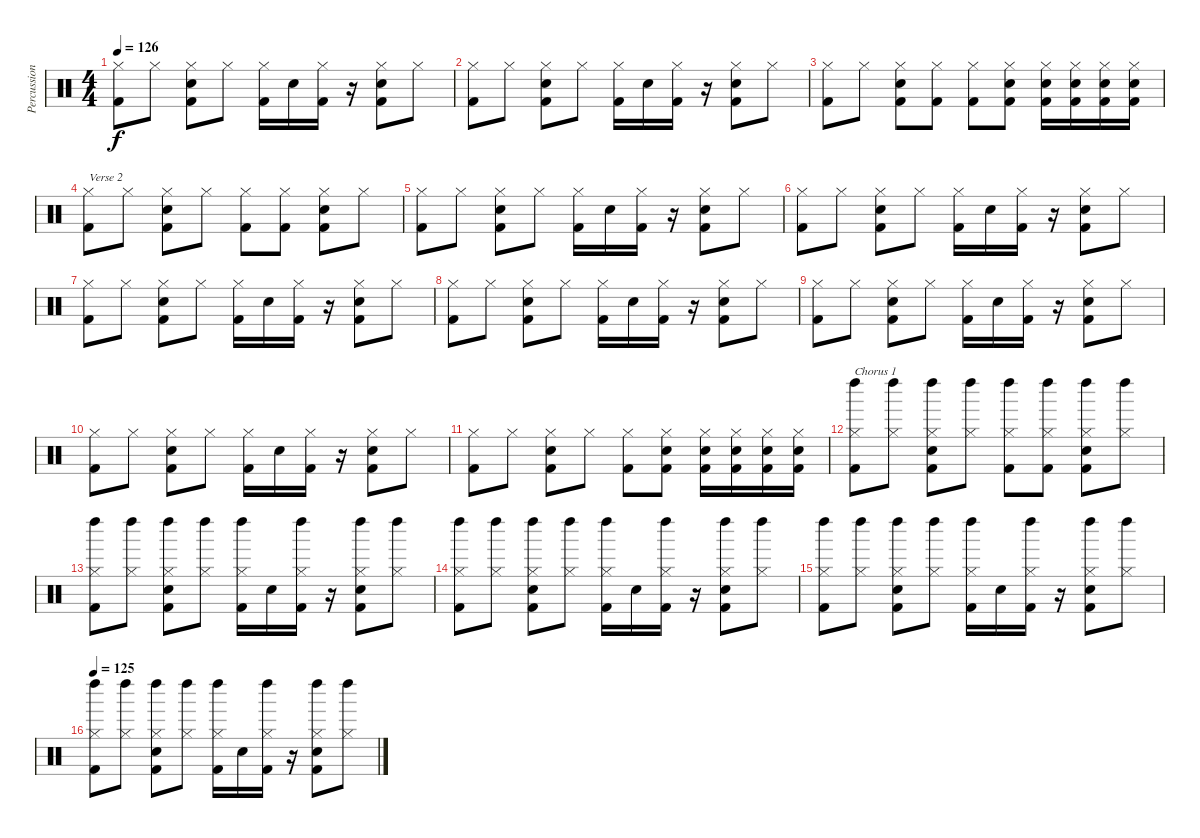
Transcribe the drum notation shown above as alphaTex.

\track ("Percussion" "Percussion") {instrument percussion}
\staff {score}
\articulation defaults
\ts (4 4)
\tempo 126
\clef neutral
\ks c
("Hi-Hat (closed)" "Kick (hit) 2").8{dy f} "Hi-Hat (closed)".8 ("Hi-Hat (closed)" "Electric Snare (hit)" "Kick (hit) 2").8 "Hi-Hat (closed)".8 ("Hi-Hat (closed)" "Kick (hit) 2").16 "Electric Snare (hit)".16 ("Hi-Hat (closed)" "Kick (hit) 2").16 r.16 ("Hi-Hat (closed)" "Electric Snare (hit)" "Kick (hit) 2").8 "Hi-Hat (closed)".8 |
("Hi-Hat (closed)" "Kick (hit) 2").8 "Hi-Hat (closed)".8 ("Hi-Hat (closed)" "Electric Snare (hit)" "Kick (hit) 2").8 "Hi-Hat (closed)".8 ("Hi-Hat (closed)" "Kick (hit) 2").16 "Electric Snare (hit)".16 ("Hi-Hat (closed)" "Kick (hit) 2").16 r.16 ("Hi-Hat (closed)" "Electric Snare (hit)" "Kick (hit) 2").8 "Hi-Hat (closed)".8 |
("Hi-Hat (closed)" "Kick (hit) 2").8 "Hi-Hat (closed)".8 ("Hi-Hat (closed)" "Electric Snare (hit)" "Kick (hit) 2").8 ("Hi-Hat (closed)" "Kick (hit) 2").8 ("Hi-Hat (closed)" "Kick (hit) 2").8 ("Hi-Hat (closed)" "Electric Snare (hit)" "Kick (hit) 2").8 ("Hi-Hat (closed)" "Electric Snare (hit)" "Kick (hit) 2").16 ("Hi-Hat (closed)" "Electric Snare (hit)" "Kick (hit) 2").16 ("Hi-Hat (closed)" "Electric Snare (hit)" "Kick (hit) 2").16 ("Hi-Hat (closed)" "Electric Snare (hit)" "Kick (hit) 2").16 |
("Hi-Hat (closed)" "Kick (hit) 2").8{txt "Verse 2"} "Hi-Hat (closed)".8 ("Hi-Hat (closed)" "Electric Snare (hit)" "Kick (hit) 2").8 "Hi-Hat (closed)".8 ("Hi-Hat (closed)" "Kick (hit) 2").8 ("Hi-Hat (closed)" "Kick (hit) 2").8 ("Hi-Hat (closed)" "Electric Snare (hit)" "Kick (hit) 2").8 "Hi-Hat (closed)".8 |
("Hi-Hat (closed)" "Kick (hit) 2").8 "Hi-Hat (closed)".8 ("Hi-Hat (closed)" "Electric Snare (hit)" "Kick (hit) 2").8 "Hi-Hat (closed)".8 ("Hi-Hat (closed)" "Kick (hit) 2").16 "Electric Snare (hit)".16 ("Hi-Hat (closed)" "Kick (hit) 2").16 r.16 ("Hi-Hat (closed)" "Electric Snare (hit)" "Kick (hit) 2").8 "Hi-Hat (closed)".8 |
("Hi-Hat (closed)" "Kick (hit) 2").8 "Hi-Hat (closed)".8 ("Hi-Hat (closed)" "Electric Snare (hit)" "Kick (hit) 2").8 "Hi-Hat (closed)".8 ("Hi-Hat (closed)" "Kick (hit) 2").16 "Electric Snare (hit)".16 ("Hi-Hat (closed)" "Kick (hit) 2").16 r.16 ("Hi-Hat (closed)" "Electric Snare (hit)" "Kick (hit) 2").8 "Hi-Hat (closed)".8 |
("Hi-Hat (closed)" "Kick (hit) 2").8 "Hi-Hat (closed)".8 ("Hi-Hat (closed)" "Electric Snare (hit)" "Kick (hit) 2").8 "Hi-Hat (closed)".8 ("Hi-Hat (closed)" "Kick (hit) 2").16 "Electric Snare (hit)".16 ("Hi-Hat (closed)" "Kick (hit) 2").16 r.16 ("Hi-Hat (closed)" "Electric Snare (hit)" "Kick (hit) 2").8 "Hi-Hat (closed)".8 |
("Hi-Hat (closed)" "Kick (hit) 2").8 "Hi-Hat (closed)".8 ("Hi-Hat (closed)" "Electric Snare (hit)" "Kick (hit) 2").8 "Hi-Hat (closed)".8 ("Hi-Hat (closed)" "Kick (hit) 2").16 "Electric Snare (hit)".16 ("Hi-Hat (closed)" "Kick (hit) 2").16 r.16 ("Hi-Hat (closed)" "Electric Snare (hit)" "Kick (hit) 2").8 "Hi-Hat (closed)".8 |
("Hi-Hat (closed)" "Kick (hit) 2").8 "Hi-Hat (closed)".8 ("Hi-Hat (closed)" "Electric Snare (hit)" "Kick (hit) 2").8 "Hi-Hat (closed)".8 ("Hi-Hat (closed)" "Kick (hit) 2").16 "Electric Snare (hit)".16 ("Hi-Hat (closed)" "Kick (hit) 2").16 r.16 ("Hi-Hat (closed)" "Electric Snare (hit)" "Kick (hit) 2").8 "Hi-Hat (closed)".8 |
("Hi-Hat (closed)" "Kick (hit) 2").8 "Hi-Hat (closed)".8 ("Hi-Hat (closed)" "Electric Snare (hit)" "Kick (hit) 2").8 "Hi-Hat (closed)".8 ("Hi-Hat (closed)" "Kick (hit) 2").16 "Electric Snare (hit)".16 ("Hi-Hat (closed)" "Kick (hit) 2").16 r.16 ("Hi-Hat (closed)" "Electric Snare (hit)" "Kick (hit) 2").8 "Hi-Hat (closed)".8 |
("Hi-Hat (closed)" "Kick (hit) 2").8 "Hi-Hat (closed)".8 ("Hi-Hat (closed)" "Electric Snare (hit)" "Kick (hit) 2").8 "Hi-Hat (closed)".8 ("Hi-Hat (closed)" "Kick (hit) 2").8 ("Hi-Hat (closed)" "Electric Snare (hit)" "Kick (hit) 2").8 ("Hi-Hat (closed)" "Electric Snare (hit)" "Kick (hit) 2").16 ("Hi-Hat (closed)" "Electric Snare (hit)" "Kick (hit) 2").16 ("Hi-Hat (closed)" "Electric Snare (hit)" "Kick (hit) 2").16 ("Hi-Hat (closed)" "Electric Snare (hit)" "Kick (hit) 2").16 |
("Hi-Hat (closed)" "Kick (hit) 2" "Left Maraca (hit)").8{txt "Chorus 1"} ("Hi-Hat (closed)" "Left Maraca (hit)").8 ("Hi-Hat (closed)" "Electric Snare (hit)" "Kick (hit) 2" "Left Maraca (hit)").8 ("Hi-Hat (closed)" "Left Maraca (hit)").8 ("Hi-Hat (closed)" "Kick (hit) 2" "Left Maraca (hit)").8 ("Hi-Hat (closed)" "Kick (hit) 2" "Left Maraca (hit)").8 ("Hi-Hat (closed)" "Electric Snare (hit)" "Kick (hit) 2" "Left Maraca (hit)").8 ("Hi-Hat (closed)" "Left Maraca (hit)").8 |
("Hi-Hat (closed)" "Kick (hit) 2" "Left Maraca (hit)").8 ("Hi-Hat (closed)" "Left Maraca (hit)").8 ("Hi-Hat (closed)" "Electric Snare (hit)" "Kick (hit) 2" "Left Maraca (hit)").8 ("Hi-Hat (closed)" "Left Maraca (hit)").8 ("Hi-Hat (closed)" "Kick (hit) 2" "Left Maraca (hit)").16 "Electric Snare (hit)".16 ("Hi-Hat (closed)" "Kick (hit) 2" "Left Maraca (hit)").16 r.16 ("Hi-Hat (closed)" "Electric Snare (hit)" "Kick (hit) 2" "Left Maraca (hit)").8 ("Hi-Hat (closed)" "Left Maraca (hit)").8 |
("Hi-Hat (closed)" "Kick (hit) 2" "Left Maraca (hit)").8 ("Hi-Hat (closed)" "Left Maraca (hit)").8 ("Hi-Hat (closed)" "Electric Snare (hit)" "Kick (hit) 2" "Left Maraca (hit)").8 ("Hi-Hat (closed)" "Left Maraca (hit)").8 ("Hi-Hat (closed)" "Kick (hit) 2" "Left Maraca (hit)").16 "Electric Snare (hit)".16 ("Hi-Hat (closed)" "Kick (hit) 2" "Left Maraca (hit)").16 r.16 ("Hi-Hat (closed)" "Electric Snare (hit)" "Kick (hit) 2" "Left Maraca (hit)").8 ("Hi-Hat (closed)" "Left Maraca (hit)").8 |
("Hi-Hat (closed)" "Kick (hit) 2" "Left Maraca (hit)").8 ("Hi-Hat (closed)" "Left Maraca (hit)").8 ("Hi-Hat (closed)" "Electric Snare (hit)" "Kick (hit) 2" "Left Maraca (hit)").8 ("Hi-Hat (closed)" "Left Maraca (hit)").8 ("Hi-Hat (closed)" "Kick (hit) 2" "Left Maraca (hit)").16 "Electric Snare (hit)".16 ("Hi-Hat (closed)" "Kick (hit) 2" "Left Maraca (hit)").16 r.16 ("Hi-Hat (closed)" "Electric Snare (hit)" "Kick (hit) 2" "Left Maraca (hit)").8 ("Hi-Hat (closed)" "Left Maraca (hit)").8 |
\tempo 125
("Hi-Hat (closed)" "Kick (hit) 2" "Left Maraca (hit)").8 ("Hi-Hat (closed)" "Left Maraca (hit)").8 ("Hi-Hat (closed)" "Electric Snare (hit)" "Kick (hit) 2" "Left Maraca (hit)").8 ("Hi-Hat (closed)" "Left Maraca (hit)").8 ("Hi-Hat (closed)" "Kick (hit) 2" "Left Maraca (hit)").16 "Electric Snare (hit)".16 ("Hi-Hat (closed)" "Kick (hit) 2" "Left Maraca (hit)").16 r.16 ("Hi-Hat (closed)" "Electric Snare (hit)" "Kick (hit) 2" "Left Maraca (hit)").8 ("Hi-Hat (closed)" "Left Maraca (hit)").8
